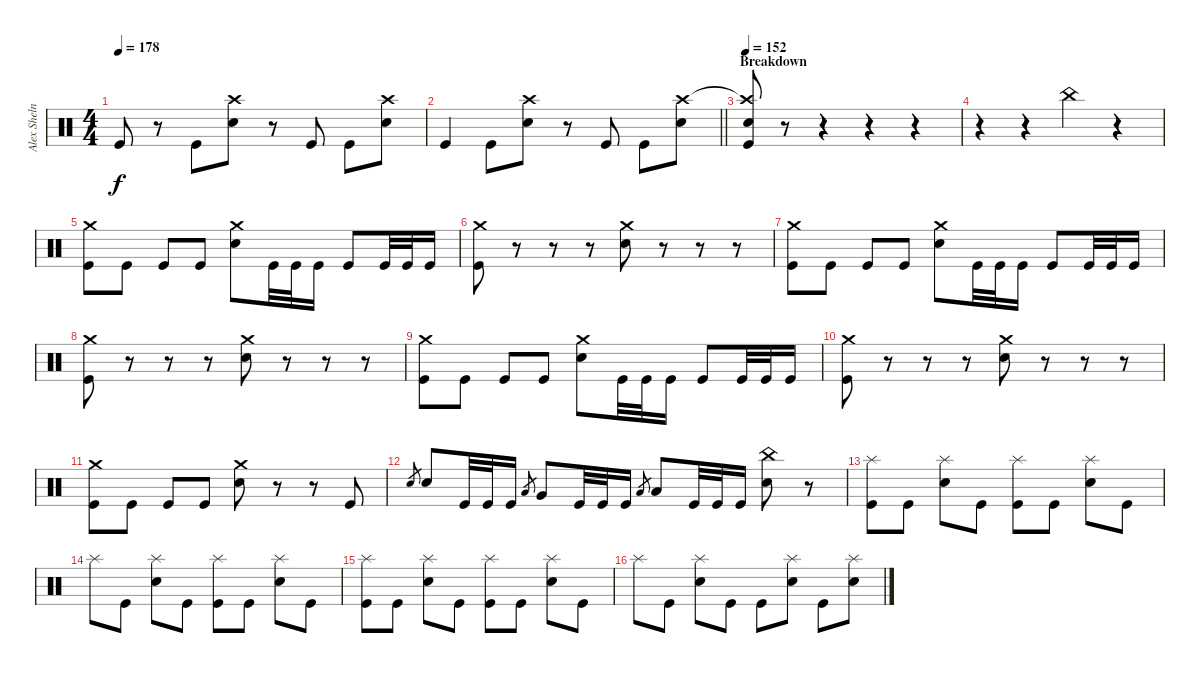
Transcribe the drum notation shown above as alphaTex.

\track ("Alex Shelnut" "Alex Sheln") {instrument percussion}
\staff {score}
\articulation defaults
\ts (4 4)
\tempo 178
\clef neutral
\ks c "Kick (hit)".8{dy f}
r.8 "Kick (hit)".8 ("Crash high (hit)" "Electric Snare (hit)").8 r.8 "Kick (hit)".8 "Kick (hit)".8 ("Crash high (hit)" "Electric Snare (hit)").8 |
\barLineRight lightlight "Kick (hit)".4 "Kick (hit)".8
("Crash high (hit)" "Electric Snare (hit)").8 r.8 "Kick (hit)".8 "Kick (hit)".8 ("Crash high (hit)" "Electric Snare (hit)").8 |
\section ("" "Breakdown")
\tempo 152
("Crash high (hit)"{t} "Electric Snare (hit)" "Kick (hit)").8 r.8 r.4 r.4 r.4 |
r.4 r.4 "China (hit)".4 r.4 |
("Crash medium (hit)" "Kick (hit)").8 "Kick (hit)".8 "Kick (hit)".8 "Kick (hit)".8 ("Crash medium (hit)" "Electric Snare (hit)").8 "Kick (hit)".32 "Kick (hit)".32 "Kick (hit)".16 "Kick (hit)".8 "Kick (hit)".32 "Kick (hit)".32 "Kick (hit)".16 |
("Crash medium (hit)" "Kick (hit)").8 r.8 r.8 r.8 ("Crash medium (hit)" "Electric Snare (hit)").8 r.8 r.8 r.8 |
("Crash medium (hit)" "Kick (hit)").8 "Kick (hit)".8 "Kick (hit)".8 "Kick (hit)".8 ("Crash medium (hit)" "Electric Snare (hit)").8 "Kick (hit)".32 "Kick (hit)".32 "Kick (hit)".16 "Kick (hit)".8 "Kick (hit)".32 "Kick (hit)".32 "Kick (hit)".16 |
("Crash medium (hit)" "Kick (hit)").8 r.8 r.8 r.8 ("Crash medium (hit)" "Electric Snare (hit)").8 r.8 r.8 r.8 |
("Crash medium (hit)" "Kick (hit)").8 "Kick (hit)".8 "Kick (hit)".8 "Kick (hit)".8 ("Crash medium (hit)" "Electric Snare (hit)").8 "Kick (hit)".32 "Kick (hit)".32 "Kick (hit)".16 "Kick (hit)".8 "Kick (hit)".32 "Kick (hit)".32 "Kick (hit)".16 |
("Crash medium (hit)" "Kick (hit)").8 r.8 r.8 r.8 ("Crash medium (hit)" "Electric Snare (hit)").8 r.8 r.8 r.8 |
("Crash medium (hit)" "Kick (hit)").8 "Kick (hit)".8 "Kick (hit)".8 "Kick (hit)".8 ("Crash medium (hit)" "Electric Snare (hit)").8 r.8 r.8 "Kick (hit)".8 |
"Electric Snare (hit)".8{gr} "Electric Snare (hit)".8 "Kick (hit)".32 "Kick (hit)".32 "Kick (hit)".16 "Low Tom (hit)".8{gr} "Very Low Tom (hit)".8 "Kick (hit)".32 "Kick (hit)".32 "Kick (hit)".16 "Low Tom (hit)".8{gr} "Low Floor Tom (hit)".8 "Kick (hit)".32 "Kick (hit)".32 "Kick (hit)".16 ("China (hit)" "Electric Snare (hit)").8 r.8 |
("Splash (hit)" "Kick (hit)").8 "Kick (hit)".8 ("Splash (hit)" "Electric Snare (hit)").8 "Kick (hit)".8 ("Splash (hit)" "Kick (hit)").8 "Kick (hit)".8 ("Splash (hit)" "Electric Snare (hit)").8 "Kick (hit)".8 |
"Splash (hit)".8 "Kick (hit)".8 ("Splash (hit)" "Electric Snare (hit)").8 "Kick (hit)".8 ("Splash (hit)" "Kick (hit)").8 "Kick (hit)".8 ("Splash (hit)" "Electric Snare (hit)").8 "Kick (hit)".8 |
("Splash (hit)" "Kick (hit)").8 "Kick (hit)".8 ("Splash (hit)" "Electric Snare (hit)").8 "Kick (hit)".8 ("Splash (hit)" "Kick (hit)").8 "Kick (hit)".8 ("Splash (hit)" "Electric Snare (hit)").8 "Kick (hit)".8 |
"Splash (hit)".8 "Kick (hit)".8 ("Splash (hit)" "Electric Snare (hit)").8 "Kick (hit)".8 "Kick (hit)".8 ("Splash (hit)" "Electric Snare (hit)").8 "Kick (hit)".8 ("Splash (hit)" "Electric Snare (hit)").8
